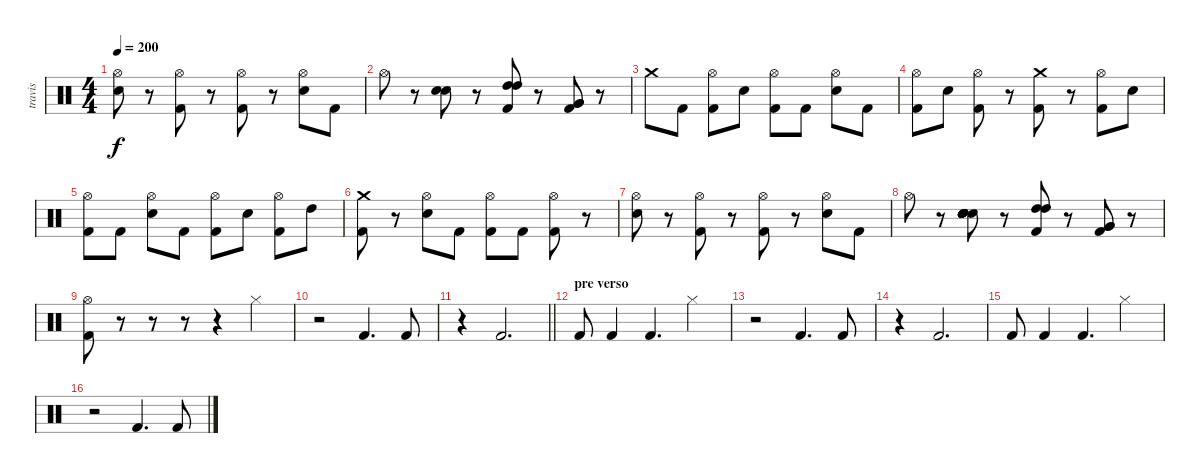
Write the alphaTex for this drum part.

\track ("travis" "travis") {instrument percussion}
\staff {score}
\articulation defaults
\ts (4 4)
\tempo 200
\clef neutral
\ks c
("Hi-Hat (open)" "Electric Snare (hit)").8{dy f} r.8 ("Hi-Hat (open)" "Kick (hit) 2").8 r.8 ("Hi-Hat (open)" "Kick (hit) 2").8 r.8 ("Hi-Hat (open)" "Electric Snare (hit)").8 "Kick (hit) 2".8 |
"Hi-Hat (open)".8 r.8 ("Electric Snare (hit)" "Electric Snare (hit)").8 r.8 ("Kick (hit) 2" "High Tom (hit)" "High Tom (hit)").8 r.8 ("Very Low Tom (hit)" "Very Low Tom (hit)" "Kick (hit) 2").8 r.8 |
"Crash medium (hit)".8 "Kick (hit) 2".8 ("Hi-Hat (open)" "Kick (hit) 2").8 "Electric Snare (hit)".8 ("Hi-Hat (open)" "Kick (hit) 2").8 "Kick (hit) 2".8 ("Hi-Hat (open)" "Electric Snare (hit)").8 "Kick (hit) 2".8 |
("Hi-Hat (open)" "Kick (hit) 2").8 "Electric Snare (hit)".8 ("Hi-Hat (open)" "Kick (hit) 2").8 r.8 ("Crash medium (hit)" "Kick (hit) 2").8 r.8 ("Hi-Hat (open)" "Kick (hit) 2").8 "Electric Snare (hit)".8 |
("Hi-Hat (open)" "Kick (hit) 2").8 "Kick (hit) 2".8 ("Hi-Hat (open)" "Electric Snare (hit)").8 "Kick (hit) 2".8 ("Hi-Hat (open)" "Kick (hit) 2").8 "Electric Snare (hit)".8 ("Hi-Hat (open)" "Kick (hit) 2").8 "High Tom (hit)".8 |
("Crash medium (hit)" "Kick (hit) 2").8 r.8 ("Hi-Hat (open)" "Electric Snare (hit)").8 "Kick (hit) 2".8 ("Hi-Hat (open)" "Kick (hit) 2").8 "Kick (hit) 2".8 ("Hi-Hat (open)" "Kick (hit) 2").8 r.8 |
("Hi-Hat (open)" "Electric Snare (hit)").8 r.8 ("Hi-Hat (open)" "Kick (hit) 2").8 r.8 ("Hi-Hat (open)" "Kick (hit) 2").8 r.8 ("Hi-Hat (open)" "Electric Snare (hit)").8 "Kick (hit) 2".8 |
"Hi-Hat (open)".8 r.8 ("Snare (hit) 2" "Snare (hit) 2" "Snare (hit) 2" "Snare (hit) 2" "Snare (hit) 2" "Snare (hit) 2").8 r.8 ("Kick (hit) 2" "High Tom (hit)" "High Tom (hit)").8 r.8 ("Very Low Tom (hit)" "Very Low Tom (hit)" "Kick (hit) 2").8 r.8 |
("Kick (hit) 2" "Hi-Hat (open)").8 r.8 r.8 r.8 r.4 "Hi-Hat (closed)".4 |
r.2 "Kick (hit) 2".4{d} "Kick (hit) 2".8 |
\barLineRight lightlight
r.4 "Kick (hit) 2".2{d} |
\section ("" "pre verso")
"Kick (hit) 2".8 "Kick (hit) 2".4 "Kick (hit) 2".4{d} "Hi-Hat (closed)".4 |
r.2 "Kick (hit) 2".4{d} "Kick (hit) 2".8 |
r.4 "Kick (hit) 2".2{d} |
"Kick (hit) 2".8 "Kick (hit) 2".4 "Kick (hit) 2".4{d} "Hi-Hat (closed)".4 |
r.2 "Kick (hit) 2".4{d} "Kick (hit) 2".8
